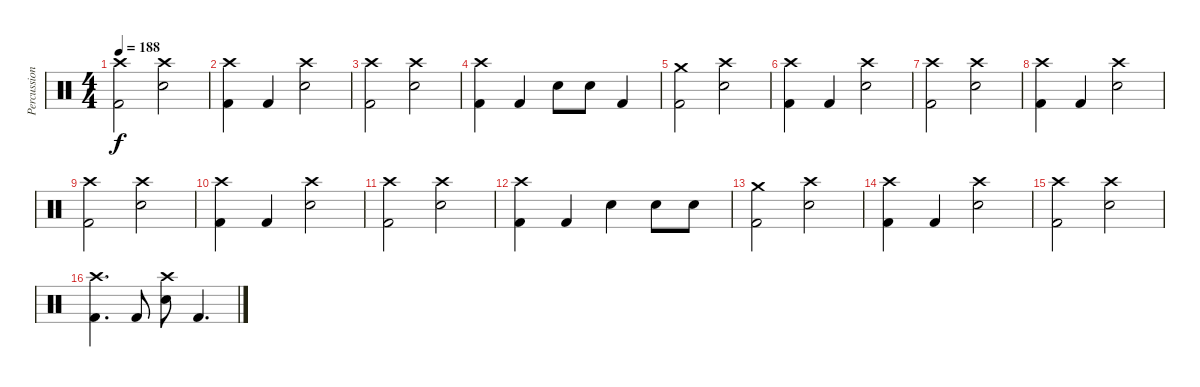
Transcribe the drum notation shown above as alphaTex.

\track ("Percussion" "Percussion") {instrument percussion}
\staff {score}
\articulation defaults
\ts (4 4)
\tempo 188
\clef neutral
\ks c
("Crash high (hit)" "Kick (hit) 2").2{dy f} ("Crash high (hit)" "Snare (hit) 2").2 |
("Crash high (hit)" "Kick (hit) 2").4 "Kick (hit) 2".4 ("Crash high (hit)" "Snare (hit) 2").2 |
("Crash high (hit)" "Kick (hit) 2").2 ("Crash high (hit)" "Snare (hit) 2").2 |
("Crash high (hit)" "Kick (hit) 2").4 "Kick (hit) 2".4 "Snare (hit) 2".8 "Snare (hit) 2".8 "Kick (hit) 2".4 |
("Crash medium (hit)" "Kick (hit) 2").2 ("Crash high (hit)" "Snare (hit) 2").2 |
("Crash high (hit)" "Kick (hit) 2").4 "Kick (hit) 2".4 ("Crash high (hit)" "Snare (hit) 2").2 |
("Crash high (hit)" "Kick (hit) 2").2 ("Crash high (hit)" "Snare (hit) 2").2 |
("Crash high (hit)" "Kick (hit) 2").4 "Kick (hit) 2".4 ("Crash high (hit)" "Snare (hit) 2").2 |
("Crash high (hit)" "Kick (hit) 2").2 ("Crash high (hit)" "Snare (hit) 2").2 |
("Crash high (hit)" "Kick (hit) 2").4 "Kick (hit) 2".4 ("Crash high (hit)" "Snare (hit) 2").2 |
("Crash high (hit)" "Kick (hit) 2").2 ("Crash high (hit)" "Snare (hit) 2").2 |
("Crash high (hit)" "Kick (hit) 2").4 "Kick (hit) 2".4 "Snare (hit) 2".4 "Snare (hit) 2".8 "Snare (hit) 2".8 |
("Crash medium (hit)" "Kick (hit) 2").2 ("Crash high (hit)" "Snare (hit) 2").2 |
("Crash high (hit)" "Kick (hit) 2").4 "Kick (hit) 2".4 ("Crash high (hit)" "Snare (hit) 2").2 |
("Crash high (hit)" "Kick (hit) 2").2 ("Crash high (hit)" "Snare (hit) 2").2 |
("Kick (hit) 2" "Crash high (hit)").4{d} "Kick (hit) 2".8 ("Snare (hit) 2" "Crash high (hit)").8 "Kick (hit) 2".4{d}
